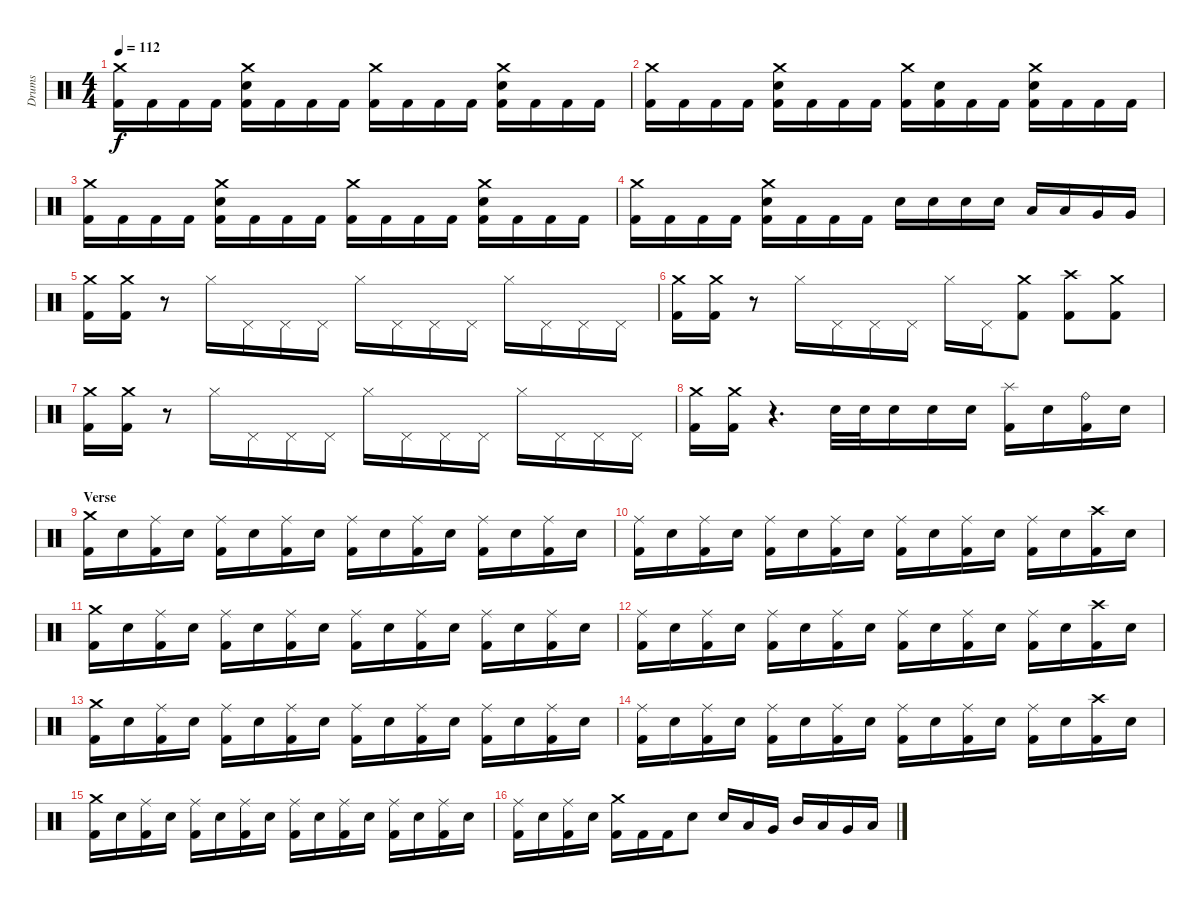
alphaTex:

\track ("Drums" "Drums") {instrument percussion}
\staff {score}
\articulation defaults
\ts (4 4)
\section ("" "")
\tempo 112
\clef neutral
\ks c
("Crash medium (hit)" "Kick (hit) 2").16{dy f} "Kick (hit) 2".16 "Kick (hit) 2".16 "Kick (hit) 2".16 ("Crash medium (hit)" "Electric Snare (hit)" "Kick (hit) 2").16 "Kick (hit) 2".16 "Kick (hit) 2".16 "Kick (hit) 2".16 ("Crash medium (hit)" "Kick (hit) 2").16 "Kick (hit) 2".16 "Kick (hit) 2".16 "Kick (hit) 2".16 ("Crash medium (hit)" "Electric Snare (hit)" "Kick (hit) 2").16 "Kick (hit) 2".16 "Kick (hit) 2".16 "Kick (hit) 2".16 |
("Crash medium (hit)" "Kick (hit) 2").16 "Kick (hit) 2".16 "Kick (hit) 2".16 "Kick (hit) 2".16 ("Crash medium (hit)" "Electric Snare (hit)" "Kick (hit) 2").16 "Kick (hit) 2".16 "Kick (hit) 2".16 "Kick (hit) 2".16 ("Crash medium (hit)" "Kick (hit) 2").16 ("Electric Snare (hit)" "Kick (hit) 2").16 "Kick (hit) 2".16 "Kick (hit) 2".16 ("Crash medium (hit)" "Electric Snare (hit)" "Kick (hit) 2").16 "Kick (hit) 2".16 "Kick (hit) 2".16 "Kick (hit) 2".16 |
("Crash medium (hit)" "Kick (hit) 2").16 "Kick (hit) 2".16 "Kick (hit) 2".16 "Kick (hit) 2".16 ("Crash medium (hit)" "Electric Snare (hit)" "Kick (hit) 2").16 "Kick (hit) 2".16 "Kick (hit) 2".16 "Kick (hit) 2".16 ("Crash medium (hit)" "Kick (hit) 2").16 "Kick (hit) 2".16 "Kick (hit) 2".16 "Kick (hit) 2".16 ("Crash medium (hit)" "Electric Snare (hit)" "Kick (hit) 2").16 "Kick (hit) 2".16 "Kick (hit) 2".16 "Kick (hit) 2".16 |
("Crash medium (hit)" "Kick (hit) 2").16 "Kick (hit) 2".16 "Kick (hit) 2".16 "Kick (hit) 2".16 ("Crash medium (hit)" "Electric Snare (hit)" "Kick (hit) 2").16 "Kick (hit) 2".16 "Kick (hit) 2".16 "Kick (hit) 2".16 "Electric Snare (hit)".16 "Electric Snare (hit)".16 "Electric Snare (hit)".16 "Electric Snare (hit)".16 "Low Tom (hit)".16 "Low Tom (hit)".16 "Very Low Tom (hit)".16 "Very Low Tom (hit)".16 |
\section ("" "")
("Crash medium (hit)" "Kick (hit) 2").16 ("Crash medium (hit)" "Kick (hit) 2").16 r.8 "Hi-Hat (closed)".16 "Pedal Hi-Hat (hit)".16 "Pedal Hi-Hat (hit)".16 "Pedal Hi-Hat (hit)".16 "Hi-Hat (closed)".16 "Pedal Hi-Hat (hit)".16 "Pedal Hi-Hat (hit)".16 "Pedal Hi-Hat (hit)".16 "Hi-Hat (closed)".16 "Pedal Hi-Hat (hit)".16 "Pedal Hi-Hat (hit)".16 "Pedal Hi-Hat (hit)".16 |
("Crash medium (hit)" "Kick (hit) 2").16 ("Crash medium (hit)" "Kick (hit) 2").16 r.8 "Hi-Hat (closed)".16 "Pedal Hi-Hat (hit)".16 "Pedal Hi-Hat (hit)".16 "Pedal Hi-Hat (hit)".16 "Hi-Hat (closed)".16 "Pedal Hi-Hat (hit)".16 ("Crash medium (hit)" "Kick (hit) 2").8 ("Crash high (hit)" "Kick (hit) 2").8 ("Crash medium (hit)" "Kick (hit) 2").8 |
("Crash medium (hit)" "Kick (hit) 2").16 ("Crash medium (hit)" "Kick (hit) 2").16 r.8 "Hi-Hat (closed)".16 "Pedal Hi-Hat (hit)".16 "Pedal Hi-Hat (hit)".16 "Pedal Hi-Hat (hit)".16 "Hi-Hat (closed)".16 "Pedal Hi-Hat (hit)".16 "Pedal Hi-Hat (hit)".16 "Pedal Hi-Hat (hit)".16 "Hi-Hat (closed)".16 "Pedal Hi-Hat (hit)".16 "Pedal Hi-Hat (hit)".16 "Pedal Hi-Hat (hit)".16 |
("Crash medium (hit)" "Kick (hit) 2").16 ("Crash medium (hit)" "Kick (hit) 2").16 r.4{d} "Electric Snare (hit)".32 "Electric Snare (hit)".32 "Electric Snare (hit)".16 "Electric Snare (hit)".16 "Electric Snare (hit)".16 ("Splash (hit)" "Kick (hit) 2").16 "Electric Snare (hit)".16 ("Ride (bell)" "Kick (hit) 2").16 "Electric Snare (hit)".16 |
\section ("" "Verse")
("Crash medium (hit)" "Kick (hit) 2").16 "Electric Snare (hit)".16 ("Ride (middle)" "Kick (hit) 2").16 "Electric Snare (hit)".16 ("Ride (middle)" "Kick (hit) 2").16 "Electric Snare (hit)".16 ("Ride (middle)" "Kick (hit) 2").16 "Electric Snare (hit)".16 ("Ride (middle)" "Kick (hit) 2").16 "Electric Snare (hit)".16 ("Ride (middle)" "Kick (hit) 2").16 "Electric Snare (hit)".16 ("Ride (middle)" "Kick (hit) 2").16 "Electric Snare (hit)".16 ("Ride (middle)" "Kick (hit) 2").16 "Electric Snare (hit)".16 |
("Ride (middle)" "Kick (hit) 2").16 "Electric Snare (hit)".16 ("Ride (middle)" "Kick (hit) 2").16 "Electric Snare (hit)".16 ("Ride (middle)" "Kick (hit) 2").16 "Electric Snare (hit)".16 ("Ride (middle)" "Kick (hit) 2").16 "Electric Snare (hit)".16 ("Ride (middle)" "Kick (hit) 2").16 "Electric Snare (hit)".16 ("Ride (middle)" "Kick (hit) 2").16 "Electric Snare (hit)".16 ("Ride (middle)" "Kick (hit) 2").16 "Electric Snare (hit)".16 ("Crash high (hit)" "Kick (hit) 2").16 "Electric Snare (hit)".16 |
("Crash medium (hit)" "Kick (hit) 2").16 "Electric Snare (hit)".16 ("Ride (middle)" "Kick (hit) 2").16 "Electric Snare (hit)".16 ("Ride (middle)" "Kick (hit) 2").16 "Electric Snare (hit)".16 ("Ride (middle)" "Kick (hit) 2").16 "Electric Snare (hit)".16 ("Ride (middle)" "Kick (hit) 2").16 "Electric Snare (hit)".16 ("Ride (middle)" "Kick (hit) 2").16 "Electric Snare (hit)".16 ("Ride (middle)" "Kick (hit) 2").16 "Electric Snare (hit)".16 ("Ride (middle)" "Kick (hit) 2").16 "Electric Snare (hit)".16 |
("Ride (middle)" "Kick (hit) 2").16 "Electric Snare (hit)".16 ("Ride (middle)" "Kick (hit) 2").16 "Electric Snare (hit)".16 ("Ride (middle)" "Kick (hit) 2").16 "Electric Snare (hit)".16 ("Ride (middle)" "Kick (hit) 2").16 "Electric Snare (hit)".16 ("Ride (middle)" "Kick (hit) 2").16 "Electric Snare (hit)".16 ("Ride (middle)" "Kick (hit) 2").16 "Electric Snare (hit)".16 ("Ride (middle)" "Kick (hit) 2").16 "Electric Snare (hit)".16 ("Crash high (hit)" "Kick (hit) 2").16 "Electric Snare (hit)".16 |
("Crash medium (hit)" "Kick (hit) 2").16 "Electric Snare (hit)".16 ("Ride (middle)" "Kick (hit) 2").16 "Electric Snare (hit)".16 ("Ride (middle)" "Kick (hit) 2").16 "Electric Snare (hit)".16 ("Ride (middle)" "Kick (hit) 2").16 "Electric Snare (hit)".16 ("Ride (middle)" "Kick (hit) 2").16 "Electric Snare (hit)".16 ("Ride (middle)" "Kick (hit) 2").16 "Electric Snare (hit)".16 ("Ride (middle)" "Kick (hit) 2").16 "Electric Snare (hit)".16 ("Ride (middle)" "Kick (hit) 2").16 "Electric Snare (hit)".16 |
("Ride (middle)" "Kick (hit) 2").16 "Electric Snare (hit)".16 ("Ride (middle)" "Kick (hit) 2").16 "Electric Snare (hit)".16 ("Ride (middle)" "Kick (hit) 2").16 "Electric Snare (hit)".16 ("Ride (middle)" "Kick (hit) 2").16 "Electric Snare (hit)".16 ("Ride (middle)" "Kick (hit) 2").16 "Electric Snare (hit)".16 ("Ride (middle)" "Kick (hit) 2").16 "Electric Snare (hit)".16 ("Ride (middle)" "Kick (hit) 2").16 "Electric Snare (hit)".16 ("Crash high (hit)" "Kick (hit) 2").16 "Electric Snare (hit)".16 |
("Crash medium (hit)" "Kick (hit) 2").16 "Electric Snare (hit)".16 ("Ride (middle)" "Kick (hit) 2").16 "Electric Snare (hit)".16 ("Ride (middle)" "Kick (hit) 2").16 "Electric Snare (hit)".16 ("Ride (middle)" "Kick (hit) 2").16 "Electric Snare (hit)".16 ("Ride (middle)" "Kick (hit) 2").16 "Electric Snare (hit)".16 ("Ride (middle)" "Kick (hit) 2").16 "Electric Snare (hit)".16 ("Ride (middle)" "Kick (hit) 2").16 "Electric Snare (hit)".16 ("Ride (middle)" "Kick (hit) 2").16 "Electric Snare (hit)".16 |
("Ride (middle)" "Kick (hit) 2").16 "Electric Snare (hit)".16 ("Ride (middle)" "Kick (hit) 2").16 "Electric Snare (hit)".16 ("Crash medium (hit)" "Kick (hit) 2").16 "Kick (hit) 2".16 "Kick (hit) 2".16 "Electric Snare (hit)".8 "Electric Snare (hit)".16 "Low Tom (hit)".16 "Very Low Tom (hit)".16 "Mid Tom (hit)".16 "Low Tom (hit)".16 "Very Low Tom (hit)".16 "Low Floor Tom (hit)".16
